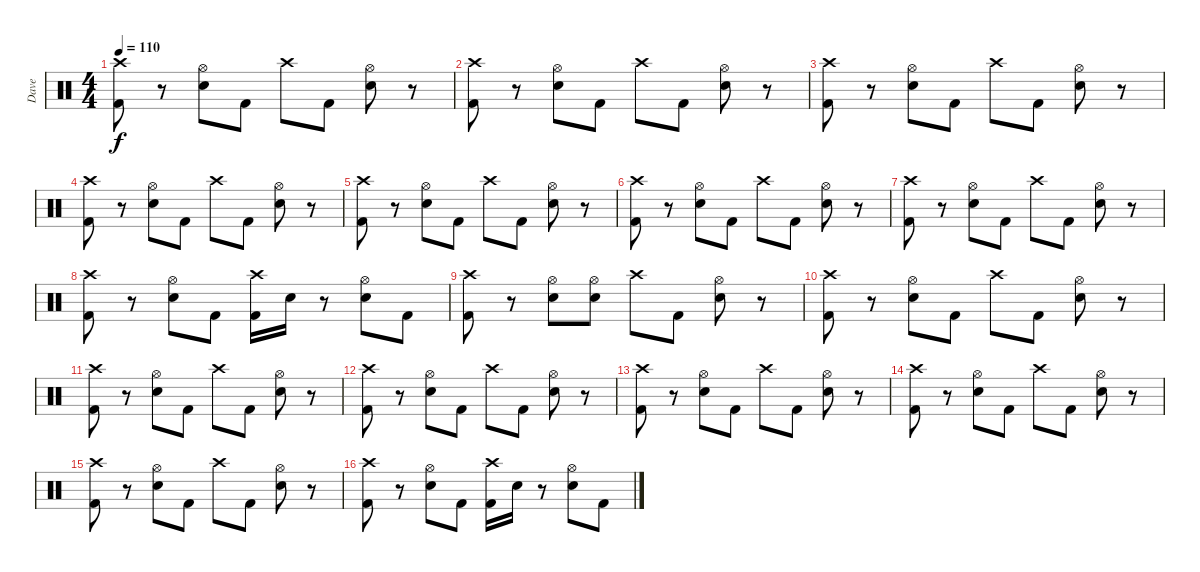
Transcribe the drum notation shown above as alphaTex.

\track ("Dave" "Dave") {instrument percussion}
\staff {score}
\articulation defaults
\ts (4 4)
\tempo 110
\clef neutral
\ks c
("Crash high (hit)" "Kick (hit) 2").8{dy f} r.8 ("Hi-Hat (open)" "Snare (hit) 2").8 "Kick (hit) 2".8 "Crash high (hit)".8 "Kick (hit) 2".8 ("Hi-Hat (open)" "Snare (hit) 2").8 r.8 |
("Crash high (hit)" "Kick (hit) 2").8 r.8 ("Hi-Hat (open)" "Snare (hit) 2").8 "Kick (hit) 2".8 "Crash high (hit)".8 "Kick (hit) 2".8 ("Hi-Hat (open)" "Snare (hit) 2").8 r.8 |
("Crash high (hit)" "Kick (hit) 2").8 r.8 ("Hi-Hat (open)" "Snare (hit) 2").8 "Kick (hit) 2".8 "Crash high (hit)".8 "Kick (hit) 2".8 ("Hi-Hat (open)" "Snare (hit) 2").8 r.8 |
("Crash high (hit)" "Kick (hit) 2").8 r.8 ("Hi-Hat (open)" "Snare (hit) 2").8 "Kick (hit) 2".8 "Crash high (hit)".8 "Kick (hit) 2".8 ("Hi-Hat (open)" "Snare (hit) 2").8 r.8 |
("Crash high (hit)" "Kick (hit) 2").8 r.8 ("Hi-Hat (open)" "Snare (hit) 2").8 "Kick (hit) 2".8 "Crash high (hit)".8 "Kick (hit) 2".8 ("Hi-Hat (open)" "Snare (hit) 2").8 r.8 |
("Crash high (hit)" "Kick (hit) 2").8 r.8 ("Hi-Hat (open)" "Snare (hit) 2").8 "Kick (hit) 2".8 "Crash high (hit)".8 "Kick (hit) 2".8 ("Hi-Hat (open)" "Snare (hit) 2").8 r.8 |
("Crash high (hit)" "Kick (hit) 2").8 r.8 ("Hi-Hat (open)" "Snare (hit) 2").8 "Kick (hit) 2".8 "Crash high (hit)".8 "Kick (hit) 2".8 ("Hi-Hat (open)" "Snare (hit) 2").8 r.8 |
("Crash high (hit)" "Kick (hit) 2").8 r.8 ("Hi-Hat (open)" "Snare (hit) 2").8 "Kick (hit) 2".8 ("Crash high (hit)" "Kick (hit) 2").16 "Snare (hit) 2".16 r.8 ("Hi-Hat (open)" "Snare (hit) 2").8 "Kick (hit) 2".8 |
("Crash high (hit)" "Kick (hit) 2").8 r.8 ("Hi-Hat (open)" "Snare (hit) 2").8 ("Hi-Hat (open)" "Snare (hit) 2").8 "Crash high (hit)".8 "Kick (hit) 2".8 ("Hi-Hat (open)" "Snare (hit) 2").8 r.8 |
("Crash high (hit)" "Kick (hit) 2").8 r.8 ("Hi-Hat (open)" "Snare (hit) 2").8 "Kick (hit) 2".8 "Crash high (hit)".8 "Kick (hit) 2".8 ("Hi-Hat (open)" "Snare (hit) 2").8 r.8 |
("Crash high (hit)" "Kick (hit) 2").8 r.8 ("Hi-Hat (open)" "Snare (hit) 2").8 "Kick (hit) 2".8 "Crash high (hit)".8 "Kick (hit) 2".8 ("Hi-Hat (open)" "Snare (hit) 2").8 r.8 |
("Crash high (hit)" "Kick (hit) 2").8 r.8 ("Hi-Hat (open)" "Snare (hit) 2").8 "Kick (hit) 2".8 "Crash high (hit)".8 "Kick (hit) 2".8 ("Hi-Hat (open)" "Snare (hit) 2").8 r.8 |
("Crash high (hit)" "Kick (hit) 2").8 r.8 ("Hi-Hat (open)" "Snare (hit) 2").8 "Kick (hit) 2".8 "Crash high (hit)".8 "Kick (hit) 2".8 ("Hi-Hat (open)" "Snare (hit) 2").8 r.8 |
("Crash high (hit)" "Kick (hit) 2").8 r.8 ("Hi-Hat (open)" "Snare (hit) 2").8 "Kick (hit) 2".8 "Crash high (hit)".8 "Kick (hit) 2".8 ("Hi-Hat (open)" "Snare (hit) 2").8 r.8 |
("Crash high (hit)" "Kick (hit) 2").8 r.8 ("Hi-Hat (open)" "Snare (hit) 2").8 "Kick (hit) 2".8 "Crash high (hit)".8 "Kick (hit) 2".8 ("Hi-Hat (open)" "Snare (hit) 2").8 r.8 |
("Crash high (hit)" "Kick (hit) 2").8 r.8 ("Hi-Hat (open)" "Snare (hit) 2").8 "Kick (hit) 2".8 ("Crash high (hit)" "Kick (hit) 2").16 "Snare (hit) 2".16 r.8 ("Hi-Hat (open)" "Snare (hit) 2").8 "Kick (hit) 2".8
